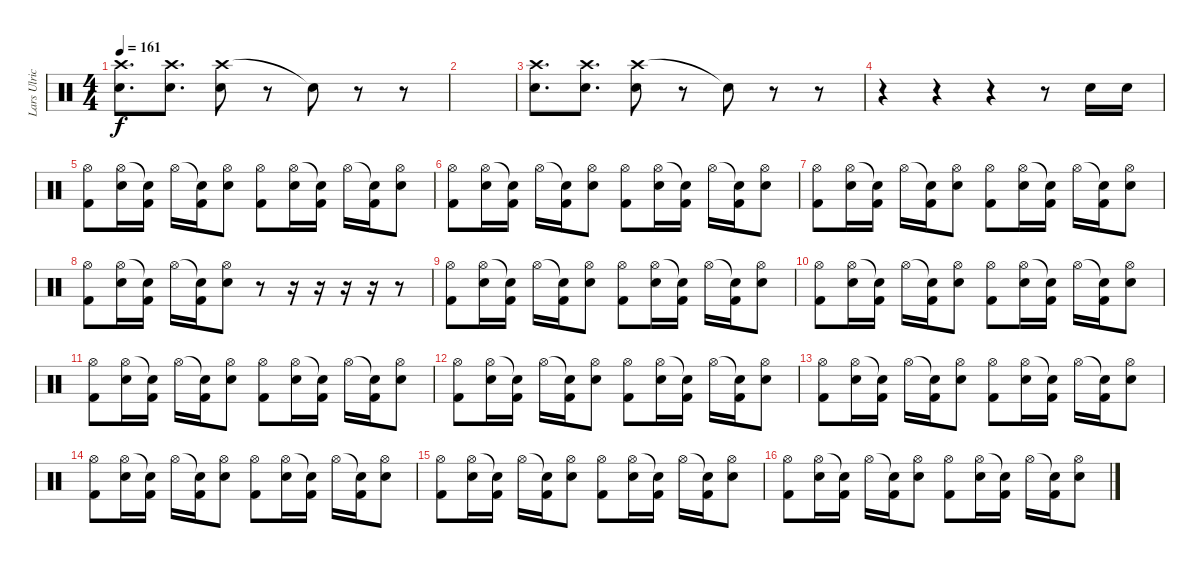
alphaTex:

\track ("Lars Ulrich" "Lars Ulric") {instrument percussion}
\staff {score}
\articulation defaults
\ts (4 4)
\tempo 161
\clef neutral
\ks c
("Crash high (hit)" "Electric Snare (hit)").8{d dy f} ("Crash high (hit)" "Electric Snare (hit)").8{d} ("Crash high (hit)" "Electric Snare (hit)").8 r.8 "Snare (hit)"{t}.8 r.8 r.8 |
|
("Crash high (hit)" "Electric Snare (hit)").8{d} ("Crash high (hit)" "Electric Snare (hit)").8{d} ("Crash high (hit)" "Electric Snare (hit)").8 r.8 "Snare (hit)"{t}.8 r.8 r.8 |
r.4 r.4 r.4 r.8 "Electric Snare (hit)".16 "Electric Snare (hit)".16 |
("Hi-Hat (open)" "Kick (hit) 2").8 ("Hi-Hat (open)" "Electric Snare (hit)").16 ("Snare (hit)"{t} "Kick (hit) 2").16 "Hi-Hat (open)".16 ("Snare (hit)"{t} "Kick (hit) 2").16 ("Hi-Hat (open)" "Electric Snare (hit)").8 ("Hi-Hat (open)" "Kick (hit) 2").8 ("Hi-Hat (open)" "Electric Snare (hit)").16 ("Snare (hit)"{t} "Kick (hit) 2").16 "Hi-Hat (open)".16 ("Snare (hit)"{t} "Kick (hit) 2").16 ("Hi-Hat (open)" "Electric Snare (hit)").8 |
("Hi-Hat (open)" "Kick (hit) 2").8 ("Hi-Hat (open)" "Electric Snare (hit)").16 ("Snare (hit)"{t} "Kick (hit) 2").16 "Hi-Hat (open)".16 ("Snare (hit)"{t} "Kick (hit) 2").16 ("Hi-Hat (open)" "Electric Snare (hit)").8 ("Hi-Hat (open)" "Kick (hit) 2").8 ("Hi-Hat (open)" "Electric Snare (hit)").16 ("Snare (hit)"{t} "Kick (hit) 2").16 "Hi-Hat (open)".16 ("Snare (hit)"{t} "Kick (hit) 2").16 ("Hi-Hat (open)" "Electric Snare (hit)").8 |
("Hi-Hat (open)" "Kick (hit) 2").8 ("Hi-Hat (open)" "Electric Snare (hit)").16 ("Snare (hit)"{t} "Kick (hit) 2").16 "Hi-Hat (open)".16 ("Snare (hit)"{t} "Kick (hit) 2").16 ("Hi-Hat (open)" "Electric Snare (hit)").8 ("Hi-Hat (open)" "Kick (hit) 2").8 ("Hi-Hat (open)" "Electric Snare (hit)").16 ("Snare (hit)"{t} "Kick (hit) 2").16 "Hi-Hat (open)".16 ("Snare (hit)"{t} "Kick (hit) 2").16 ("Hi-Hat (open)" "Electric Snare (hit)").8 |
("Hi-Hat (open)" "Kick (hit) 2").8 ("Hi-Hat (open)" "Electric Snare (hit)").16 ("Snare (hit)"{t} "Kick (hit) 2").16 "Hi-Hat (open)".16 ("Snare (hit)"{t} "Kick (hit) 2").16 ("Hi-Hat (open)" "Electric Snare (hit)").8 r.8 r.16 r.16 r.16 r.16 r.8 |
("Hi-Hat (open)" "Kick (hit) 2").8 ("Hi-Hat (open)" "Electric Snare (hit)").16 ("Snare (hit)"{t} "Kick (hit) 2").16 "Hi-Hat (open)".16 ("Snare (hit)"{t} "Kick (hit) 2").16 ("Hi-Hat (open)" "Electric Snare (hit)").8 ("Hi-Hat (open)" "Kick (hit) 2").8 ("Hi-Hat (open)" "Electric Snare (hit)").16 ("Snare (hit)"{t} "Kick (hit) 2").16 "Hi-Hat (open)".16 ("Snare (hit)"{t} "Kick (hit) 2").16 ("Hi-Hat (open)" "Electric Snare (hit)").8 |
("Hi-Hat (open)" "Kick (hit) 2").8 ("Hi-Hat (open)" "Electric Snare (hit)").16 ("Snare (hit)"{t} "Kick (hit) 2").16 "Hi-Hat (open)".16 ("Snare (hit)"{t} "Kick (hit) 2").16 ("Hi-Hat (open)" "Electric Snare (hit)").8 ("Hi-Hat (open)" "Kick (hit) 2").8 ("Hi-Hat (open)" "Electric Snare (hit)").16 ("Snare (hit)"{t} "Kick (hit) 2").16 "Hi-Hat (open)".16 ("Snare (hit)"{t} "Kick (hit) 2").16 ("Hi-Hat (open)" "Electric Snare (hit)").8 |
("Hi-Hat (open)" "Kick (hit) 2").8 ("Hi-Hat (open)" "Electric Snare (hit)").16 ("Snare (hit)"{t} "Kick (hit) 2").16 "Hi-Hat (open)".16 ("Snare (hit)"{t} "Kick (hit) 2").16 ("Hi-Hat (open)" "Electric Snare (hit)").8 ("Hi-Hat (open)" "Kick (hit) 2").8 ("Hi-Hat (open)" "Electric Snare (hit)").16 ("Snare (hit)"{t} "Kick (hit) 2").16 "Hi-Hat (open)".16 ("Snare (hit)"{t} "Kick (hit) 2").16 ("Hi-Hat (open)" "Electric Snare (hit)").8 |
("Hi-Hat (open)" "Kick (hit) 2").8 ("Hi-Hat (open)" "Electric Snare (hit)").16 ("Snare (hit)"{t} "Kick (hit) 2").16 "Hi-Hat (open)".16 ("Snare (hit)"{t} "Kick (hit) 2").16 ("Hi-Hat (open)" "Electric Snare (hit)").8 ("Hi-Hat (open)" "Kick (hit) 2").8 ("Hi-Hat (open)" "Electric Snare (hit)").16 ("Snare (hit)"{t} "Kick (hit) 2").16 "Hi-Hat (open)".16 ("Snare (hit)"{t} "Kick (hit) 2").16 ("Hi-Hat (open)" "Electric Snare (hit)").8 |
("Hi-Hat (open)" "Kick (hit) 2").8 ("Hi-Hat (open)" "Electric Snare (hit)").16 ("Snare (hit)"{t} "Kick (hit) 2").16 "Hi-Hat (open)".16 ("Snare (hit)"{t} "Kick (hit) 2").16 ("Hi-Hat (open)" "Electric Snare (hit)").8 ("Hi-Hat (open)" "Kick (hit) 2").8 ("Hi-Hat (open)" "Electric Snare (hit)").16 ("Snare (hit)"{t} "Kick (hit) 2").16 "Hi-Hat (open)".16 ("Snare (hit)"{t} "Kick (hit) 2").16 ("Hi-Hat (open)" "Electric Snare (hit)").8 |
("Hi-Hat (open)" "Kick (hit) 2").8 ("Hi-Hat (open)" "Electric Snare (hit)").16 ("Snare (hit)"{t} "Kick (hit) 2").16 "Hi-Hat (open)".16 ("Snare (hit)"{t} "Kick (hit) 2").16 ("Hi-Hat (open)" "Electric Snare (hit)").8 ("Hi-Hat (open)" "Kick (hit) 2").8 ("Hi-Hat (open)" "Electric Snare (hit)").16 ("Snare (hit)"{t} "Kick (hit) 2").16 "Hi-Hat (open)".16 ("Snare (hit)"{t} "Kick (hit) 2").16 ("Hi-Hat (open)" "Electric Snare (hit)").8 |
("Hi-Hat (open)" "Kick (hit) 2").8 ("Hi-Hat (open)" "Electric Snare (hit)").16 ("Snare (hit)"{t} "Kick (hit) 2").16 "Hi-Hat (open)".16 ("Snare (hit)"{t} "Kick (hit) 2").16 ("Hi-Hat (open)" "Electric Snare (hit)").8 ("Hi-Hat (open)" "Kick (hit) 2").8 ("Hi-Hat (open)" "Electric Snare (hit)").16 ("Snare (hit)"{t} "Kick (hit) 2").16 "Hi-Hat (open)".16 ("Snare (hit)"{t} "Kick (hit) 2").16 ("Hi-Hat (open)" "Electric Snare (hit)").8 |
("Hi-Hat (open)" "Kick (hit) 2").8 ("Hi-Hat (open)" "Electric Snare (hit)").16 ("Snare (hit)"{t} "Kick (hit) 2").16 "Hi-Hat (open)".16 ("Snare (hit)"{t} "Kick (hit) 2").16 ("Hi-Hat (open)" "Electric Snare (hit)").8 ("Hi-Hat (open)" "Kick (hit) 2").8 ("Hi-Hat (open)" "Electric Snare (hit)").16 ("Snare (hit)"{t} "Kick (hit) 2").16 "Hi-Hat (open)".16 ("Snare (hit)"{t} "Kick (hit) 2").16 ("Hi-Hat (open)" "Electric Snare (hit)").8
